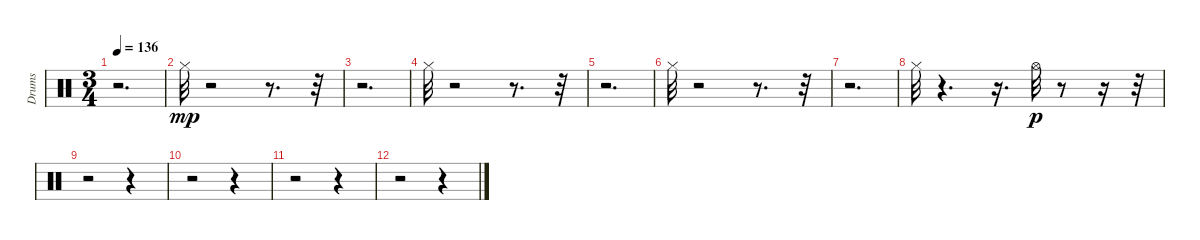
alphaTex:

\track ("Drums  " "Drums  ") {instrument percussion}
\staff {score}
\articulation defaults
\ts (3 4)
\tempo 136
\clef neutral
\ks c
r.2{d dy mp} |
"Hi-Hat (closed)".32 r.2 r.8{d} r.32 |
r.2{d} |
"Hi-Hat (closed)".32 r.2 r.8{d} r.32 |
r.2{d} |
"Hi-Hat (closed)".32 r.2 r.8{d} r.32 |
r.2{d} |
"Hi-Hat (closed)".32 r.4{d} r.16{d} "Hi-Hat (open)".32{dy p} r.8 r.16 r.32 |
r.2 r.4 |
r.2 r.4 |
r.2 r.4 |
r.2 r.4
